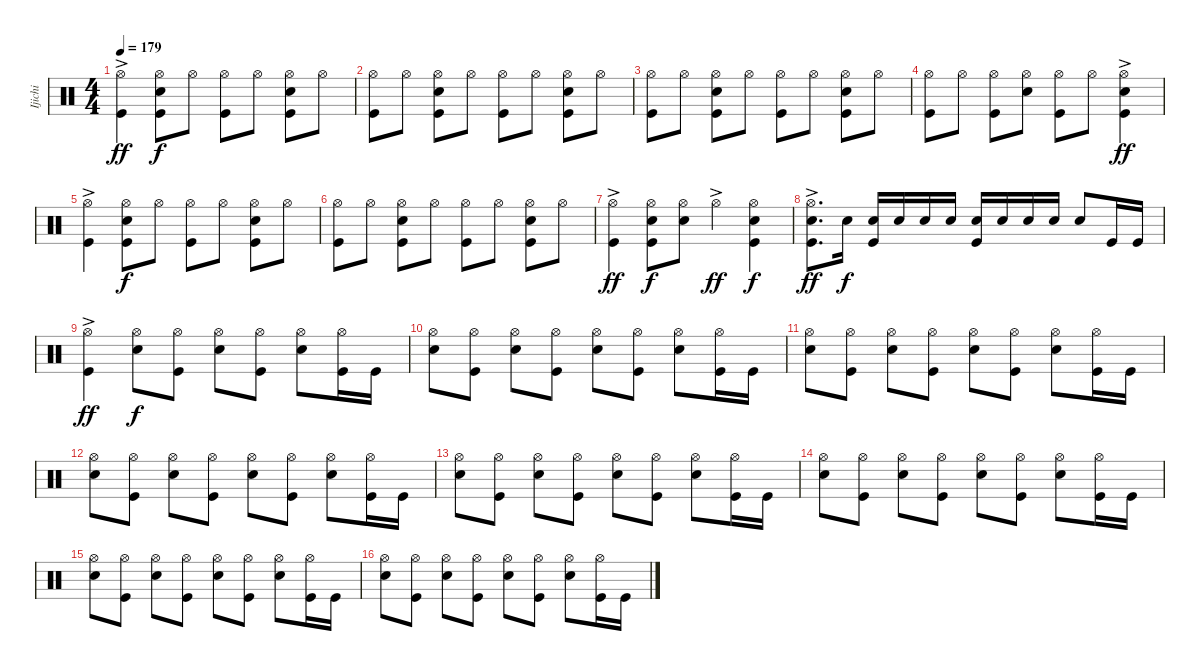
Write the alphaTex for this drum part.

\track ("Ijichi" "Ijichi") {instrument percussion}
\staff {score}
\articulation defaults
\ts (4 4)
\tempo 179
\clef neutral
\ks c
("Hi-Hat (open)"{ac} "Kick (hit)").4{dy ff} ("Hi-Hat (open)" "Snare (hit) 2" "Kick (hit)").8{dy f} "Hi-Hat (open)".8 ("Hi-Hat (open)" "Kick (hit)").8 "Hi-Hat (open)".8 ("Hi-Hat (open)" "Snare (hit) 2" "Kick (hit)").8 "Hi-Hat (open)".8 |
("Hi-Hat (open)" "Kick (hit)").8 "Hi-Hat (open)".8 ("Hi-Hat (open)" "Snare (hit) 2" "Kick (hit)").8 "Hi-Hat (open)".8 ("Hi-Hat (open)" "Kick (hit)").8 "Hi-Hat (open)".8 ("Hi-Hat (open)" "Snare (hit) 2" "Kick (hit)").8 "Hi-Hat (open)".8 |
("Hi-Hat (open)" "Kick (hit)").8 "Hi-Hat (open)".8 ("Hi-Hat (open)" "Snare (hit) 2" "Kick (hit)").8 "Hi-Hat (open)".8 ("Hi-Hat (open)" "Kick (hit)").8 "Hi-Hat (open)".8 ("Hi-Hat (open)" "Snare (hit) 2" "Kick (hit)").8 "Hi-Hat (open)".8 |
("Hi-Hat (open)" "Kick (hit)").8 "Hi-Hat (open)".8 ("Hi-Hat (open)" "Kick (hit)").8 ("Hi-Hat (open)" "Snare (hit) 2").8 ("Hi-Hat (open)" "Kick (hit)").8 "Hi-Hat (open)".8 ("Hi-Hat (open)"{ac} "Snare (hit) 2" "Kick (hit)").4{dy ff} |
("Hi-Hat (open)"{ac} "Kick (hit)").4 ("Hi-Hat (open)" "Snare (hit) 2" "Kick (hit)").8{dy f} "Hi-Hat (open)".8 ("Hi-Hat (open)" "Kick (hit)").8 "Hi-Hat (open)".8 ("Hi-Hat (open)" "Snare (hit) 2" "Kick (hit)").8 "Hi-Hat (open)".8 |
("Hi-Hat (open)" "Kick (hit)").8 "Hi-Hat (open)".8 ("Hi-Hat (open)" "Snare (hit) 2" "Kick (hit)").8 "Hi-Hat (open)".8 ("Hi-Hat (open)" "Kick (hit)").8 "Hi-Hat (open)".8 ("Hi-Hat (open)" "Snare (hit) 2" "Kick (hit)").8 "Hi-Hat (open)".8 |
("Hi-Hat (open)"{ac} "Kick (hit)").4{dy ff} ("Hi-Hat (open)" "Snare (hit) 2" "Kick (hit)").8{dy f} ("Hi-Hat (open)" "Snare (hit) 2").8 "Hi-Hat (open)"{ac}.4{dy ff} ("Hi-Hat (open)" "Snare (hit) 2" "Kick (hit)").4{dy f} |
("Hi-Hat (open)"{ac} "Snare (hit) 2" "Kick (hit)").8{d dy ff} "Snare (hit) 2".16{dy f} ("Snare (hit) 2" "Kick (hit)").16 "Snare (hit) 2".16 "Snare (hit) 2".16 "Snare (hit) 2".16 ("Snare (hit) 2" "Kick (hit)").16 "Snare (hit) 2".16 "Snare (hit) 2".16 "Snare (hit) 2".16 "Snare (hit) 2".8 "Kick (hit)".16 "Kick (hit)".16 |
("Hi-Hat (open)"{ac} "Kick (hit)").4{dy ff} ("Hi-Hat (open)" "Snare (hit) 2").8{dy f} ("Hi-Hat (open)" "Kick (hit)").8 ("Hi-Hat (open)" "Snare (hit) 2").8 ("Hi-Hat (open)" "Kick (hit)").8 ("Hi-Hat (open)" "Snare (hit) 2").8 ("Hi-Hat (open)" "Kick (hit)").16 "Kick (hit)".16 |
("Hi-Hat (open)" "Snare (hit) 2").8 ("Hi-Hat (open)" "Kick (hit)").8 ("Hi-Hat (open)" "Snare (hit) 2").8 ("Hi-Hat (open)" "Kick (hit)").8 ("Hi-Hat (open)" "Snare (hit) 2").8 ("Hi-Hat (open)" "Kick (hit)").8 ("Hi-Hat (open)" "Snare (hit) 2").8 ("Hi-Hat (open)" "Kick (hit)").16 "Kick (hit)".16 |
("Hi-Hat (open)" "Snare (hit) 2").8 ("Hi-Hat (open)" "Kick (hit)").8 ("Hi-Hat (open)" "Snare (hit) 2").8 ("Hi-Hat (open)" "Kick (hit)").8 ("Hi-Hat (open)" "Snare (hit) 2").8 ("Hi-Hat (open)" "Kick (hit)").8 ("Hi-Hat (open)" "Snare (hit) 2").8 ("Hi-Hat (open)" "Kick (hit)").16 "Kick (hit)".16 |
("Hi-Hat (open)" "Snare (hit) 2").8 ("Hi-Hat (open)" "Kick (hit)").8 ("Hi-Hat (open)" "Snare (hit) 2").8 ("Hi-Hat (open)" "Kick (hit)").8 ("Hi-Hat (open)" "Snare (hit) 2").8 ("Hi-Hat (open)" "Kick (hit)").8 ("Hi-Hat (open)" "Snare (hit) 2").8 ("Hi-Hat (open)" "Kick (hit)").16 "Kick (hit)".16 |
("Hi-Hat (open)" "Snare (hit) 2").8 ("Hi-Hat (open)" "Kick (hit)").8 ("Hi-Hat (open)" "Snare (hit) 2").8 ("Hi-Hat (open)" "Kick (hit)").8 ("Hi-Hat (open)" "Snare (hit) 2").8 ("Hi-Hat (open)" "Kick (hit)").8 ("Hi-Hat (open)" "Snare (hit) 2").8 ("Hi-Hat (open)" "Kick (hit)").16 "Kick (hit)".16 |
("Hi-Hat (open)" "Snare (hit) 2").8 ("Hi-Hat (open)" "Kick (hit)").8 ("Hi-Hat (open)" "Snare (hit) 2").8 ("Hi-Hat (open)" "Kick (hit)").8 ("Hi-Hat (open)" "Snare (hit) 2").8 ("Hi-Hat (open)" "Kick (hit)").8 ("Hi-Hat (open)" "Snare (hit) 2").8 ("Hi-Hat (open)" "Kick (hit)").16 "Kick (hit)".16 |
("Hi-Hat (open)" "Snare (hit) 2").8 ("Hi-Hat (open)" "Kick (hit)").8 ("Hi-Hat (open)" "Snare (hit) 2").8 ("Hi-Hat (open)" "Kick (hit)").8 ("Hi-Hat (open)" "Snare (hit) 2").8 ("Hi-Hat (open)" "Kick (hit)").8 ("Hi-Hat (open)" "Snare (hit) 2").8 ("Hi-Hat (open)" "Kick (hit)").16 "Kick (hit)".16 |
("Hi-Hat (open)" "Snare (hit) 2").8 ("Hi-Hat (open)" "Kick (hit)").8 ("Hi-Hat (open)" "Snare (hit) 2").8 ("Hi-Hat (open)" "Kick (hit)").8 ("Hi-Hat (open)" "Snare (hit) 2").8 ("Hi-Hat (open)" "Kick (hit)").8 ("Hi-Hat (open)" "Snare (hit) 2").8 ("Hi-Hat (open)" "Kick (hit)").16 "Kick (hit)".16
